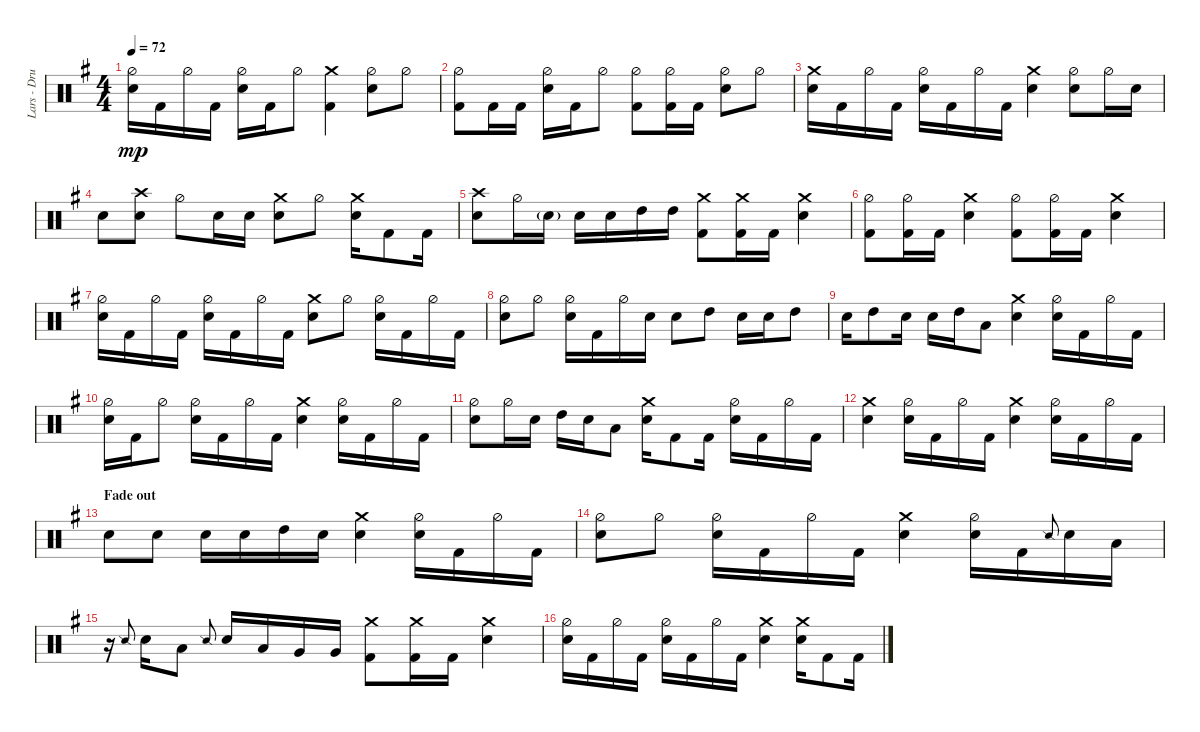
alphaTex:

\track ("Lars - Drums" "Lars - Dru") {instrument percussion}
\staff {score}
\articulation defaults
\ts (4 4)
\tempo 72
\clef neutral
\ks eminor
("Snare (hit) 2" "Hi-Hat (half)").16{dy mp} "Kick (hit) 2".16 "Hi-Hat (half)".16 "Kick (hit) 2".16 ("Hi-Hat (half)" "Snare (hit) 2").16 "Kick (hit) 2".16 "Hi-Hat (half)".8 ("Kick (hit) 2" "Crash medium (hit)").4 ("Snare (hit) 2" "Hi-Hat (half)").8 "Hi-Hat (half)".8 |
("Hi-Hat (half)" "Kick (hit) 2").8 "Kick (hit) 2".16 "Kick (hit) 2".16 ("Hi-Hat (half)" "Snare (hit) 2").16 "Kick (hit) 2".16 "Hi-Hat (half)".8 ("Hi-Hat (half)" "Kick (hit) 2").8 ("Kick (hit) 2" "Hi-Hat (half)").16 "Kick (hit) 2".16 ("Hi-Hat (half)" "Snare (hit) 2").8 "Hi-Hat (half)".8 |
("Crash medium (hit)" "Snare (hit) 2").16 "Kick (hit) 2".16 "Hi-Hat (half)".16 "Kick (hit) 2".16 ("Snare (hit) 2" "Hi-Hat (half)").16 "Kick (hit) 2".16 "Hi-Hat (half)".16 "Kick (hit) 2".16 ("Snare (hit) 2" "Crash medium (hit)").4 ("Hi-Hat (half)" "Snare (hit) 2").8 "Hi-Hat (half)".16 "Snare (hit) 2".16 |
"Snare (hit) 2".8 ("Snare (hit) 2" "Crash high (hit)").8 "Hi-Hat (half)".8 "Snare (hit) 2".16 "Snare (hit) 2".16 ("Snare (hit) 2" "Crash medium (hit)").8 "Hi-Hat (half)".8 ("Snare (hit) 2" "Crash medium (hit)").16 "Kick (hit) 2".8 "Kick (hit) 2".16 |
("Crash high (hit)" "Snare (hit) 2").8 "Hi-Hat (half)".16 "Snare (hit) 2"{g}.16 "Snare (hit) 2".16 "Snare (hit) 2".16 "High Tom (hit)".16 "High Tom (hit)".16 ("Crash medium (hit)" "Kick (hit) 2").8 ("Crash medium (hit)" "Kick (hit) 2").16 "Kick (hit) 2".16 ("Crash medium (hit)" "Snare (hit) 2").4 |
("Hi-Hat (half)" "Kick (hit) 2").8 ("Kick (hit) 2" "Hi-Hat (half)").16 "Kick (hit) 2".16 ("Crash medium (hit)" "Snare (hit) 2").4 ("Hi-Hat (half)" "Kick (hit) 2").8 ("Kick (hit) 2" "Hi-Hat (half)").16 "Kick (hit) 2".16 ("Crash medium (hit)" "Snare (hit) 2").4 |
("Snare (hit) 2" "Hi-Hat (half)").16 "Kick (hit) 2".16 "Hi-Hat (half)".16 "Kick (hit) 2".16 ("Hi-Hat (half)" "Snare (hit) 2").16 "Kick (hit) 2".16 "Hi-Hat (half)".16 "Kick (hit) 2".16 ("Snare (hit) 2" "Crash medium (hit)").8 "Hi-Hat (half)".8 ("Snare (hit) 2" "Hi-Hat (half)").16 "Kick (hit) 2".16 "Hi-Hat (half)".16 "Kick (hit) 2".16 |
("Hi-Hat (half)" "Snare (hit) 2").8 "Hi-Hat (half)".8 ("Hi-Hat (half)" "Snare (hit) 2").16 "Kick (hit) 2".16 "Hi-Hat (half)".16 "Snare (hit) 2".16 "Snare (hit) 2".8 "High Tom (hit)".8 "Snare (hit) 2".16 "Snare (hit) 2".16 "High Tom (hit)".8 |
"Snare (hit) 2".16{volume 4} "High Tom (hit)".8 "Snare (hit) 2".16 "Snare (hit) 2".16 "High Tom (hit)".16 "Low Tom (hit)".8 ("Snare (hit) 2" "Crash medium (hit)").4 ("Snare (hit) 2" "Hi-Hat (half)").16 "Kick (hit) 2".16 "Hi-Hat (half)".16 "Kick (hit) 2".16 |
("Snare (hit) 2" "Hi-Hat (half)").16 "Kick (hit) 2".16 "Hi-Hat (half)".8 ("Snare (hit) 2" "Hi-Hat (half)").16 "Kick (hit) 2".16 "Hi-Hat (half)".16 "Kick (hit) 2".16 ("Snare (hit) 2" "Crash medium (hit)").4 ("Snare (hit) 2" "Hi-Hat (half)").16 "Kick (hit) 2".16 "Hi-Hat (half)".16 "Kick (hit) 2".16 |
("Hi-Hat (half)" "Snare (hit) 2").8 "Hi-Hat (half)".16 "Snare (hit) 2".16 "High Tom (hit)".16 "Snare (hit) 2".16 "Low Tom (hit)".8 ("Snare (hit) 2" "Crash medium (hit)").16 "Kick (hit) 2".8 "Kick (hit) 2".16 ("Snare (hit) 2" "Hi-Hat (half)").16 "Kick (hit) 2".16 "Hi-Hat (half)".16 "Kick (hit) 2".16 |
("Crash medium (hit)" "Snare (hit) 2").4 ("Snare (hit) 2" "Hi-Hat (half)").16 "Kick (hit) 2".16 "Hi-Hat (half)".16 "Kick (hit) 2".16 ("Snare (hit) 2" "Crash medium (hit)").4 ("Snare (hit) 2" "Hi-Hat (half)").16 "Kick (hit) 2".16 "Hi-Hat (half)".16 "Kick (hit) 2".16 |
\section ("" "Fade out")
"Snare (hit) 2".8{volume 4} "Snare (hit) 2".8 "Snare (hit) 2".16 "Snare (hit) 2".16 "High Tom (hit)".16 "Snare (hit) 2".16 ("Snare (hit) 2" "Crash medium (hit)").4 ("Snare (hit) 2" "Hi-Hat (half)").16 "Kick (hit) 2".16 "Hi-Hat (half)".16 "Kick (hit) 2".16 |
("Snare (hit) 2" "Hi-Hat (half)").8 "Hi-Hat (half)".8 ("Hi-Hat (half)" "Snare (hit) 2").16 "Kick (hit) 2".16 "Hi-Hat (half)".16 "Kick (hit) 2".16 ("Snare (hit) 2" "Crash medium (hit)").4 ("Snare (hit) 2" "Hi-Hat (half)").16 "Kick (hit) 2".16 "Snare (side stick) 2".8{gr onbeat} "Snare (hit) 2".16 "Low Tom (hit)".16 |
r.16 "Snare (side stick) 2".8{gr onbeat} "Snare (hit) 2".16 "Low Tom (hit)".8 "Snare (side stick) 2".8{gr onbeat} "Snare (hit) 2".16 "Low Tom (hit)".16 "Very Low Tom (hit)".16 "Very Low Tom (hit)".16 ("Kick (hit) 2" "Crash medium (hit)").8 ("Kick (hit) 2" "Crash medium (hit)").16 "Kick (hit) 2".16 ("Crash medium (hit)" "Snare (hit) 2").4 |
("Snare (hit) 2" "Hi-Hat (half)").16 "Kick (hit) 2".16 "Hi-Hat (half)".16 "Kick (hit) 2".16 ("Hi-Hat (half)" "Snare (hit) 2").16 "Kick (hit) 2".16 "Hi-Hat (half)".16 "Kick (hit) 2".16 ("Snare (hit) 2" "Crash medium (hit)").4 ("Snare (hit) 2" "Crash medium (hit)").16 "Kick (hit) 2".8 "Kick (hit) 2".16{volume 0}
